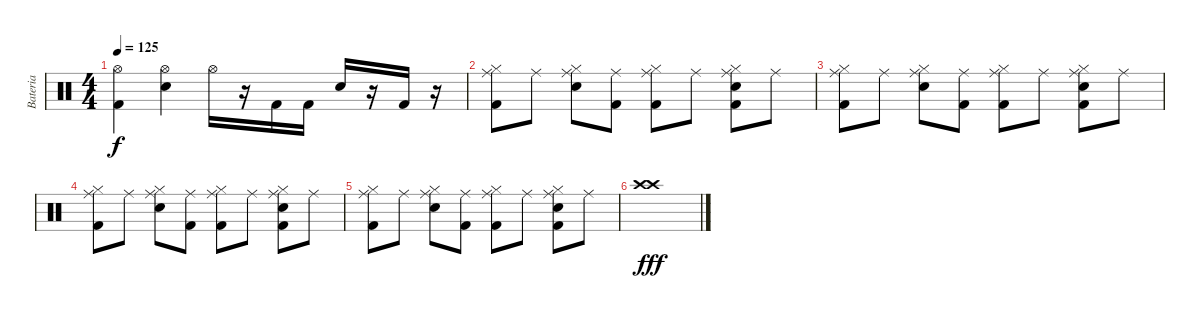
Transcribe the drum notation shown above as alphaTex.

\track ("Bateria" "Bateria") {instrument percussion}
\staff {score}
\articulation defaults
\ts (4 4)
\tempo 125
\clef neutral
\ks c
("Hi-Hat (open)" "Kick (hit) 2").4{dy f} ("Hi-Hat (open)" "Snare (hit) 2").4 "Hi-Hat (open)".16 r.16 "Kick (hit) 2".16 "Kick (hit) 2".16 "Snare (hit) 2".16 r.16 "Kick (hit) 2".16 r.16 |
("Kick (hit) 2" "Hi-Hat (closed)" "Ride (middle)").8 "Ride (middle)".8 ("Snare (hit) 2" "Hi-Hat (closed)" "Ride (middle)").8 ("Kick (hit) 2" "Ride (middle)").8 ("Kick (hit) 2" "Hi-Hat (closed)" "Ride (middle)").8 "Ride (middle)".8 ("Kick (hit) 2" "Snare (hit) 2" "Hi-Hat (closed)" "Ride (middle)").8 "Ride (middle)".8 |
("Kick (hit) 2" "Hi-Hat (closed)" "Ride (middle)").8 "Ride (middle)".8 ("Snare (hit) 2" "Hi-Hat (closed)" "Ride (middle)").8 ("Kick (hit) 2" "Ride (middle)").8 ("Kick (hit) 2" "Hi-Hat (closed)" "Ride (middle)").8 "Ride (middle)".8 ("Kick (hit) 2" "Snare (hit) 2" "Hi-Hat (closed)" "Ride (middle)").8 "Ride (middle)".8 |
("Kick (hit) 2" "Hi-Hat (closed)" "Ride (middle)").8 "Ride (middle)".8 ("Snare (hit) 2" "Hi-Hat (closed)" "Ride (middle)").8 ("Kick (hit) 2" "Ride (middle)").8 ("Kick (hit) 2" "Hi-Hat (closed)" "Ride (middle)").8 "Ride (middle)".8 ("Kick (hit) 2" "Snare (hit) 2" "Hi-Hat (closed)" "Ride (middle)").8 "Ride (middle)".8 |
("Kick (hit) 2" "Hi-Hat (closed)" "Ride (middle)").8 "Ride (middle)".8 ("Snare (hit) 2" "Hi-Hat (closed)" "Ride (middle)").8 ("Kick (hit) 2" "Ride (middle)").8 ("Kick (hit) 2" "Hi-Hat (closed)" "Ride (middle)").8 "Ride (middle)".8 ("Kick (hit) 2" "Snare (hit) 2" "Hi-Hat (closed)" "Ride (middle)").8 "Ride (middle)".8 |
("Crash high (hit)" "Crash high (hit)").1{dy fff}
